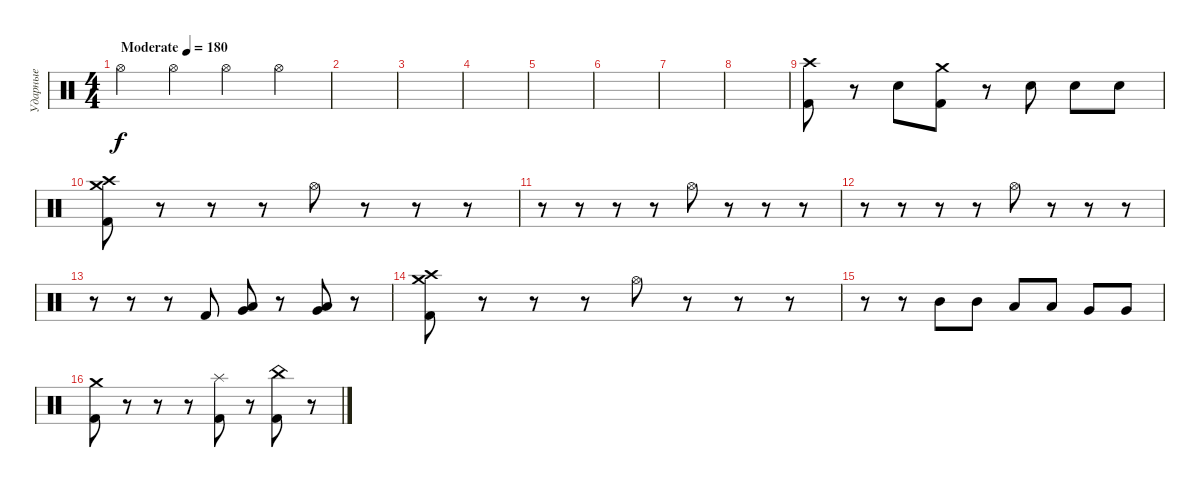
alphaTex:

\track ("Ударные" "Ударные") {instrument percussion}
\staff {score}
\articulation defaults
\ts (4 4)
\tempo (180 "Moderate")
\clef neutral
\ks c "Hi-Hat (open)".4{dy f} "Hi-Hat (open)".4 "Hi-Hat (open)".4 "Hi-Hat (open)".4
|
|
|
|
|
|
|
|
("Kick (hit) 2" "Crash high (hit)").8 r.8 "Electric Snare (hit)".8 ("Kick (hit) 2" "Crash medium (hit)").8 r.8 "Electric Snare (hit)".8 "Electric Snare (hit)".8 "Electric Snare (hit)".8 |
("Kick (hit) 2" "Crash high (hit)" "Crash medium (hit)").8 r.8 r.8 r.8 "Hi-Hat (open)".8 r.8 r.8 r.8 |
r.8 r.8 r.8 r.8 "Hi-Hat (open)".8 r.8 r.8 r.8 |
r.8 r.8 r.8 r.8 "Hi-Hat (open)".8 r.8 r.8 r.8 |
r.8 r.8 r.8 "Kick (hit) 2".8 ("Very Low Tom (hit)" "Low Tom (hit)").8 r.8 ("Low Floor Tom (hit)" "Very Low Tom (hit)").8 r.8 |
("Kick (hit) 2" "Crash high (hit)" "Crash medium (hit)").8 r.8 r.8 r.8 "Hi-Hat (open)".8 r.8 r.8 r.8 |
r.8 r.8 "Mid Tom (hit)".8 "Mid Tom (hit)".8 "Low Tom (hit)".8 "Low Tom (hit)".8 "Very Low Tom (hit)".8 "Very Low Tom (hit)".8 |
("Kick (hit) 2" "Crash medium (hit)").8 r.8 r.8 r.8 ("Kick (hit) 2" "Splash (hit)").8 r.8 ("Kick (hit) 2" "China (hit)").8 r.8
